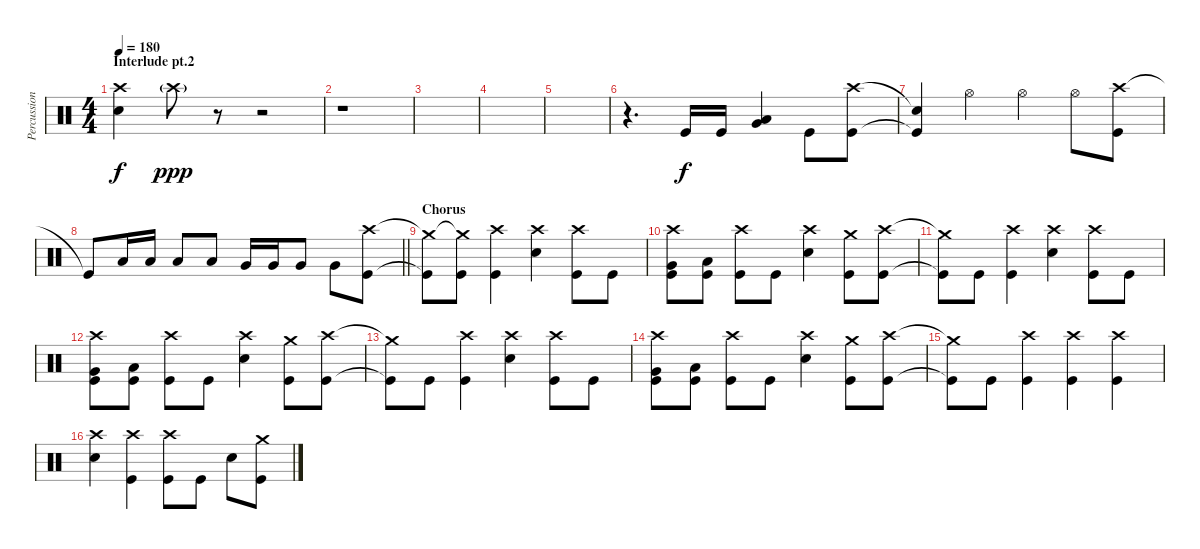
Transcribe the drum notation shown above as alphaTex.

\track ("Percussion" "Percussion") {instrument percussion}
\staff {score}
\articulation defaults
\ts (4 4)
\section ("" "Interlude pt.2")
\tempo 180
\clef neutral
\ks c
("Crash high (hit)"{t} "Snare (hit)"{t}).4{dy f} "Crash high (hit)"{g}.8{dy ppp} r.8 r.2 |
r.1 |
|
|
|
r.4{d} "Kick (hit)".16{dy f} "Kick (hit)".16 ("Very Low Tom (hit)" "Low Floor Tom (hit)").4 "Kick (hit)".8 ("Crash high (hit)" "Kick (hit)").8 |
("Snare (hit)"{t} "Kick (hit)"{t}).4 "Hi-Hat (open)".4 "Hi-Hat (open)".4 "Hi-Hat (open)".8 ("Crash high (hit)" "Kick (hit)").8 |
\barLineRight lightlight "Kick (hit)"{t}.8 "Low Tom (hit)".16 "Low Tom (hit)".16 "Low Tom (hit)".8 "Low Tom (hit)".8 "Very Low Tom (hit)".16 "Very Low Tom (hit)".16 "Very Low Tom (hit)".8 "Very Low Tom (hit)".8
("Crash high (hit)" "Kick (hit)").8 |
\section ("" "Chorus")
("Crash medium (hit)"{t} "Kick (hit)"{t}).8 ("Crash medium (hit)"{t} "Kick (hit)").8 ("Crash high (hit)" "Kick (hit)").4 ("Crash high (hit)" "Snare (hit) 2").4 ("Crash high (hit)" "Kick (hit)").8 "Kick (hit)".8 |
("Crash high (hit)" "Very Low Tom (hit)" "Kick (hit)").8 ("Low Floor Tom (hit)" "Kick (hit)").8 ("Crash high (hit)" "Kick (hit)").8 "Kick (hit)".8 ("Crash high (hit)" "Snare (hit) 2").4 ("Crash medium (hit)" "Kick (hit)").8 ("Crash high (hit)" "Kick (hit)").8 |
("Crash medium (hit)"{t} "Kick (hit)"{t}).8 "Kick (hit)".8 ("Crash high (hit)" "Kick (hit)").4 ("Crash high (hit)" "Snare (hit) 2").4 ("Crash high (hit)" "Kick (hit)").8 "Kick (hit)".8 |
("Crash high (hit)" "Very Low Tom (hit)" "Kick (hit)").8 ("Low Floor Tom (hit)" "Kick (hit)").8 ("Crash high (hit)" "Kick (hit)").8 "Kick (hit)".8 ("Crash high (hit)" "Snare (hit) 2").4 ("Crash medium (hit)" "Kick (hit)").8 ("Crash high (hit)" "Kick (hit)").8 |
("Crash medium (hit)"{t} "Kick (hit)"{t}).8 "Kick (hit)".8 ("Crash high (hit)" "Kick (hit)").4 ("Crash high (hit)" "Snare (hit) 2").4 ("Crash high (hit)" "Kick (hit)").8 "Kick (hit)".8 |
("Crash high (hit)" "Very Low Tom (hit)" "Kick (hit)").8 ("Low Floor Tom (hit)" "Kick (hit)").8 ("Crash high (hit)" "Kick (hit)").8 "Kick (hit)".8 ("Crash high (hit)" "Snare (hit) 2").4 ("Crash medium (hit)" "Kick (hit)").8 ("Crash high (hit)" "Kick (hit)").8 |
("Crash medium (hit)"{t} "Kick (hit)"{t}).8 "Kick (hit)".8 ("Crash high (hit)" "Kick (hit)").4 ("Crash high (hit)" "Kick (hit)").4 ("Crash high (hit)" "Kick (hit)").4 |
("Crash high (hit)" "Snare (hit) 2").4 ("Crash high (hit)" "Kick (hit)").4 ("Crash high (hit)" "Kick (hit)").8 "Kick (hit)".8 "Snare (hit) 2".8 ("Crash medium (hit)" "Kick (hit)").8
